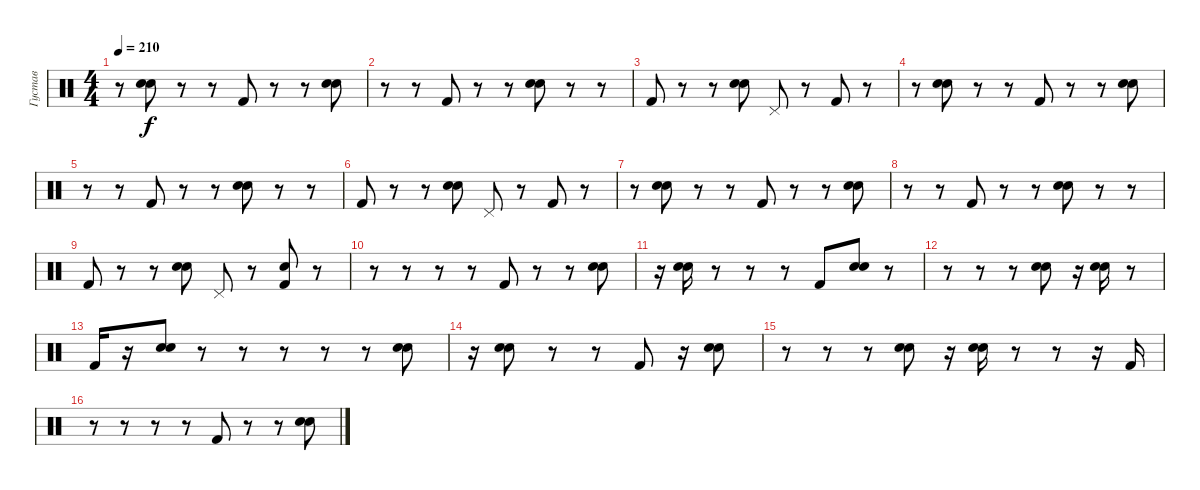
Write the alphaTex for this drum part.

\track ("Густав" "Густав") {instrument percussion}
\staff {score}
\articulation defaults
\ts (4 4)
\tempo 210
\clef neutral
\ks c
r.8{dy f} ("Electric Snare (hit)" "Snare (hit) 2").8 r.8 r.8 "Kick (hit) 2".8 r.8 r.8 ("Electric Snare (hit)" "Snare (hit) 2").8 |
r.8 r.8 "Kick (hit) 2".8 r.8 r.8 ("Electric Snare (hit)" "Snare (hit) 2").8 r.8 r.8 |
"Kick (hit) 2".8 r.8 r.8 ("Electric Snare (hit)" "Snare (hit) 2").8 "Pedal Hi-Hat (hit)".8 r.8 "Kick (hit) 2".8 r.8 |
r.8 ("Electric Snare (hit)" "Snare (hit) 2").8 r.8 r.8 "Kick (hit) 2".8 r.8 r.8 ("Electric Snare (hit)" "Snare (hit) 2").8 |
r.8 r.8 "Kick (hit) 2".8 r.8 r.8 ("Electric Snare (hit)" "Snare (hit) 2").8 r.8 r.8 |
"Kick (hit) 2".8 r.8 r.8 ("Electric Snare (hit)" "Snare (hit) 2").8 "Pedal Hi-Hat (hit)".8 r.8 "Kick (hit) 2".8 r.8 |
r.8 ("Electric Snare (hit)" "Snare (hit) 2").8 r.8 r.8 "Kick (hit) 2".8 r.8 r.8 ("Electric Snare (hit)" "Snare (hit) 2").8 |
r.8 r.8 "Kick (hit) 2".8 r.8 r.8 ("Electric Snare (hit)" "Snare (hit) 2").8 r.8 r.8 |
"Kick (hit) 2".8 r.8 r.8 ("Electric Snare (hit)" "Snare (hit) 2").8 "Pedal Hi-Hat (hit)".8 r.8 ("Snare (hit) 2" "Kick (hit) 2").8 r.8 |
r.8 r.8 r.8 r.8 "Kick (hit) 2".8 r.8 r.8 ("Snare (hit) 2" "Electric Snare (hit)").8 |
r.16 ("Snare (hit) 2" "Electric Snare (hit)").16 r.8 r.8 r.8 "Kick (hit) 2".8 ("Snare (hit) 2" "Electric Snare (hit)").8 r.8 |
r.8 r.8 r.8 ("Snare (hit) 2" "Electric Snare (hit)").8 r.16 ("Snare (hit) 2" "Electric Snare (hit)").16 r.8 |
"Kick (hit) 2".16 r.16 ("Snare (hit) 2" "Electric Snare (hit)").8 r.8 r.8 r.8 r.8 r.8 ("Snare (hit) 2" "Electric Snare (hit)").8 |
r.16 ("Snare (hit) 2" "Electric Snare (hit)").8 r.8 r.8 "Kick (hit) 2".8 r.16 ("Snare (hit) 2" "Electric Snare (hit)").8 |
r.8 r.8 r.8 ("Snare (hit) 2" "Electric Snare (hit)").8 r.16 ("Snare (hit) 2" "Electric Snare (hit)").16 r.8 r.8 r.16 "Kick (hit) 2".16 |
r.8 r.8 r.8 r.8 "Kick (hit) 2".8 r.8 r.8 ("Snare (hit) 2" "Electric Snare (hit)").8
